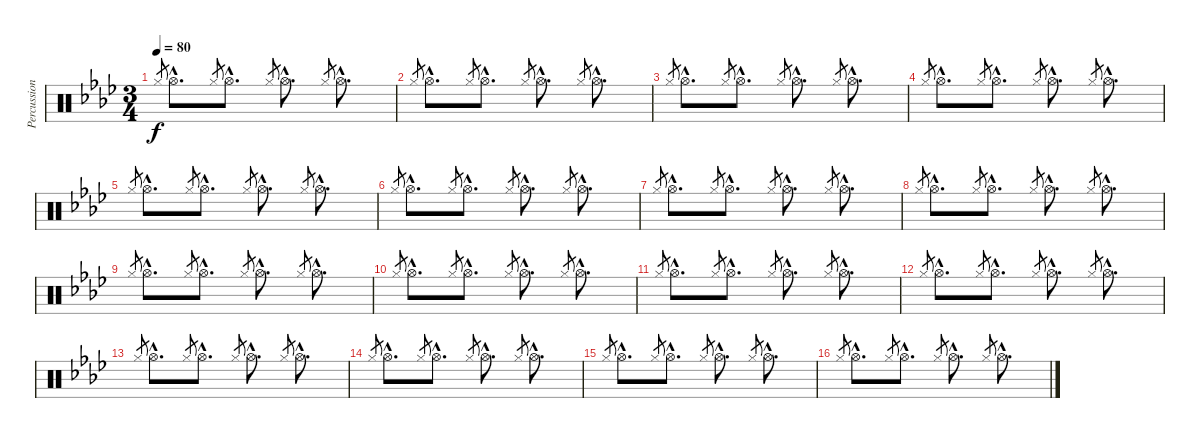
\track ("Percussion" "Percussion") {instrument percussion}
\staff {score}
\articulation defaults
\ts (3 4)
\tempo 80
\clef neutral
\ks ab "Hi-Hat (closed)".8{gr dy f} "Hi-Hat (open)"{hac}.8{d} "Hi-Hat (closed)".8{gr} "Hi-Hat (open)"{hac}.8{d} "Hi-Hat (closed)".8{gr} "Hi-Hat (open)"{hac}.8{d} "Hi-Hat (closed)".8{gr} "Hi-Hat (open)"{hac}.8{d}
|
"Hi-Hat (closed)".8{gr} "Hi-Hat (open)"{hac}.8{d} "Hi-Hat (closed)".8{gr} "Hi-Hat (open)"{hac}.8{d} "Hi-Hat (closed)".8{gr} "Hi-Hat (open)"{hac}.8{d} "Hi-Hat (closed)".8{gr} "Hi-Hat (open)"{hac}.8{d} |
"Hi-Hat (closed)".8{gr} "Hi-Hat (open)"{hac}.8{d} "Hi-Hat (closed)".8{gr} "Hi-Hat (open)"{hac}.8{d} "Hi-Hat (closed)".8{gr} "Hi-Hat (open)"{hac}.8{d} "Hi-Hat (closed)".8{gr} "Hi-Hat (open)"{hac}.8{d} |
"Hi-Hat (closed)".8{gr} "Hi-Hat (open)"{hac}.8{d} "Hi-Hat (closed)".8{gr} "Hi-Hat (open)"{hac}.8{d} "Hi-Hat (closed)".8{gr} "Hi-Hat (open)"{hac}.8{d} "Hi-Hat (closed)".8{gr} "Hi-Hat (open)"{hac}.8{d} |
"Hi-Hat (closed)".8{gr} "Hi-Hat (open)"{hac}.8{d} "Hi-Hat (closed)".8{gr} "Hi-Hat (open)"{hac}.8{d} "Hi-Hat (closed)".8{gr} "Hi-Hat (open)"{hac}.8{d} "Hi-Hat (closed)".8{gr} "Hi-Hat (open)"{hac}.8{d} |
"Hi-Hat (closed)".8{gr} "Hi-Hat (open)"{hac}.8{d} "Hi-Hat (closed)".8{gr} "Hi-Hat (open)"{hac}.8{d} "Hi-Hat (closed)".8{gr} "Hi-Hat (open)"{hac}.8{d} "Hi-Hat (closed)".8{gr} "Hi-Hat (open)"{hac}.8{d} |
"Hi-Hat (closed)".8{gr} "Hi-Hat (open)"{hac}.8{d} "Hi-Hat (closed)".8{gr} "Hi-Hat (open)"{hac}.8{d} "Hi-Hat (closed)".8{gr} "Hi-Hat (open)"{hac}.8{d} "Hi-Hat (closed)".8{gr} "Hi-Hat (open)"{hac}.8{d} |
"Hi-Hat (closed)".8{gr} "Hi-Hat (open)"{hac}.8{d} "Hi-Hat (closed)".8{gr} "Hi-Hat (open)"{hac}.8{d} "Hi-Hat (closed)".8{gr} "Hi-Hat (open)"{hac}.8{d} "Hi-Hat (closed)".8{gr} "Hi-Hat (open)"{hac}.8{d} |
"Hi-Hat (closed)".8{gr} "Hi-Hat (open)"{hac}.8{d} "Hi-Hat (closed)".8{gr} "Hi-Hat (open)"{hac}.8{d} "Hi-Hat (closed)".8{gr} "Hi-Hat (open)"{hac}.8{d} "Hi-Hat (closed)".8{gr} "Hi-Hat (open)"{hac}.8{d} |
"Hi-Hat (closed)".8{gr} "Hi-Hat (open)"{hac}.8{d} "Hi-Hat (closed)".8{gr} "Hi-Hat (open)"{hac}.8{d} "Hi-Hat (closed)".8{gr} "Hi-Hat (open)"{hac}.8{d} "Hi-Hat (closed)".8{gr} "Hi-Hat (open)"{hac}.8{d} |
"Hi-Hat (closed)".8{gr} "Hi-Hat (open)"{hac}.8{d} "Hi-Hat (closed)".8{gr} "Hi-Hat (open)"{hac}.8{d} "Hi-Hat (closed)".8{gr} "Hi-Hat (open)"{hac}.8{d} "Hi-Hat (closed)".8{gr} "Hi-Hat (open)"{hac}.8{d} |
"Hi-Hat (closed)".8{gr} "Hi-Hat (open)"{hac}.8{d} "Hi-Hat (closed)".8{gr} "Hi-Hat (open)"{hac}.8{d} "Hi-Hat (closed)".8{gr} "Hi-Hat (open)"{hac}.8{d} "Hi-Hat (closed)".8{gr} "Hi-Hat (open)"{hac}.8{d} |
"Hi-Hat (closed)".8{gr} "Hi-Hat (open)"{hac}.8{d} "Hi-Hat (closed)".8{gr} "Hi-Hat (open)"{hac}.8{d} "Hi-Hat (closed)".8{gr} "Hi-Hat (open)"{hac}.8{d} "Hi-Hat (closed)".8{gr} "Hi-Hat (open)"{hac}.8{d} |
"Hi-Hat (closed)".8{gr} "Hi-Hat (open)"{hac}.8{d} "Hi-Hat (closed)".8{gr} "Hi-Hat (open)"{hac}.8{d} "Hi-Hat (closed)".8{gr} "Hi-Hat (open)"{hac}.8{d} "Hi-Hat (closed)".8{gr} "Hi-Hat (open)"{hac}.8{d} |
"Hi-Hat (closed)".8{gr} "Hi-Hat (open)"{hac}.8{d} "Hi-Hat (closed)".8{gr} "Hi-Hat (open)"{hac}.8{d} "Hi-Hat (closed)".8{gr} "Hi-Hat (open)"{hac}.8{d} "Hi-Hat (closed)".8{gr} "Hi-Hat (open)"{hac}.8{d} |
"Hi-Hat (closed)".8{gr} "Hi-Hat (open)"{hac}.8{d} "Hi-Hat (closed)".8{gr} "Hi-Hat (open)"{hac}.8{d} "Hi-Hat (closed)".8{gr} "Hi-Hat (open)"{hac}.8{d} "Hi-Hat (closed)".8{gr} "Hi-Hat (open)"{hac}.8{d}
